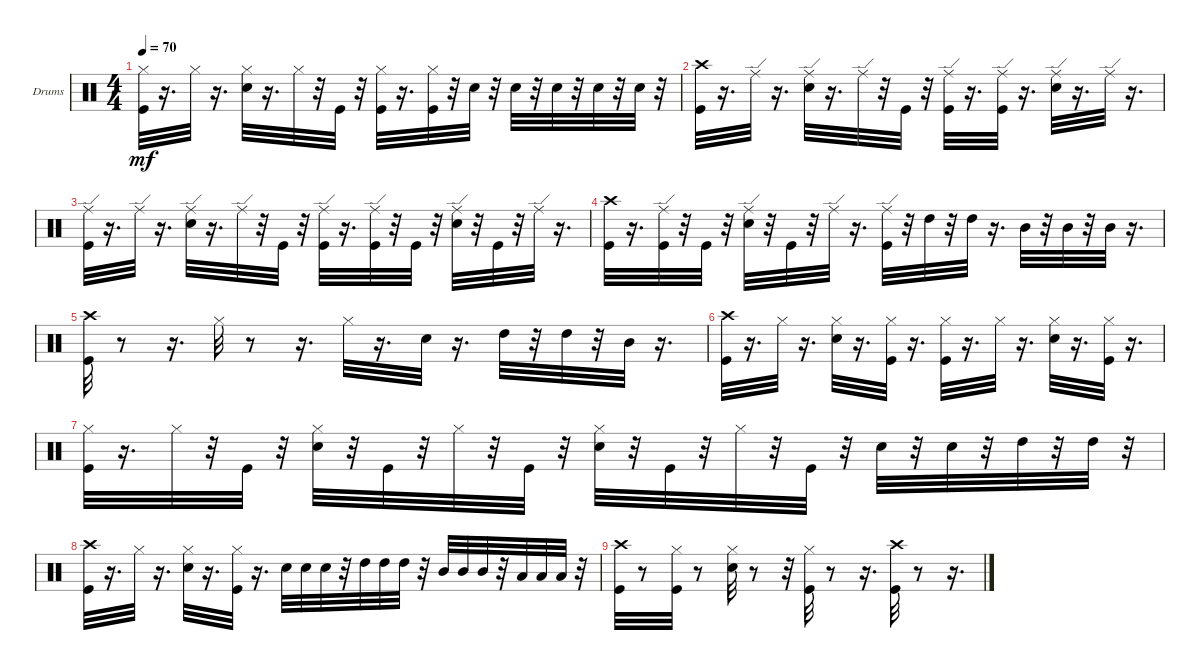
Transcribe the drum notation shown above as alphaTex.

\bracketExtendMode groupsimilarinstruments
\firstSystemTrackNameOrientation horizontal
\otherSystemsTrackNameOrientation horizontal
\track ("" "Drums") {instrument percussion}
\staff {score}
\articulation defaults
\ts (4 4)
\tempo 70
\clef neutral
\ks c
("Hi-Hat (closed)" "Kick (hit)").32{dy mf} r.16{d} "Hi-Hat (closed)".32 r.16{d} ("Hi-Hat (closed)" "Snare (hit) 2").32 r.16{d} "Hi-Hat (closed)".32 r.32 "Kick (hit)".32 r.32 ("Hi-Hat (closed)" "Kick (hit)").32 r.16{d} ("Hi-Hat (closed)" "Kick (hit)").32 r.32 "Snare (hit) 2".32 r.32 "Snare (hit) 2".32 r.32 "Snare (hit) 2".32 r.32 "Snare (hit) 2".32 r.32 "Snare (hit) 2".32 r.32 |
("Crash high (hit)" "Kick (hit)").32 r.16{d} "Ride (edge)".32 r.16{d} ("Snare (hit) 2" "Ride (edge)").32 r.16{d} "Ride (edge)".32 r.32 "Kick (hit)".32 r.32 ("Kick (hit)" "Ride (edge)").32 r.16{d} ("Kick (hit)" "Ride (edge)").32 r.16{d} ("Snare (hit) 2" "Ride (edge)").32 r.16{d} "Ride (edge)".32 r.16{d} |
("Ride (edge)" "Kick (hit)").32 r.16{d} "Ride (edge)".32 r.16{d} ("Snare (hit) 2" "Ride (edge)").32 r.16{d} "Ride (edge)".32 r.32 "Kick (hit)".32 r.32 ("Kick (hit)" "Ride (edge)").32 r.16{d} ("Kick (hit)" "Ride (edge)").32 r.32 "Kick (hit)".32 r.32 ("Snare (hit) 2" "Ride (edge)").32 r.32 "Kick (hit)".32 r.32 "Ride (edge)".32 r.16{d} |
("Crash high (hit)" "Kick (hit)").32 r.16{d} ("Ride (edge)" "Kick (hit)").32 r.32 "Kick (hit)".32 r.32 ("Ride (edge)" "Snare (hit) 2").32 r.32 "Kick (hit)".32 r.32 "Ride (edge)".32 r.16{d} ("Ride (edge)" "Kick (hit)").32 r.32 "High Tom (hit)".32 r.32 "High Tom (hit)".32 r.16{d} "Mid Tom (hit)".32 r.32 "Mid Tom (hit)".32 r.32 "Mid Tom (hit)".32 r.16{d} |
("Crash high (hit)" "Kick (hit)").32 r.8 r.16{d} "Hi-Hat (closed)".32 r.8 r.16{d} "Hi-Hat (closed)".32 r.16{d} "Snare (hit) 2".32 r.16{d} "High Tom (hit)".32 r.32 "High Tom (hit)".32 r.32 "Mid Tom (hit)".32 r.16{d} |
("Crash high (hit)" "Kick (hit)").32 r.16{d} "Hi-Hat (closed)".32 r.16{d} ("Snare (hit) 2" "Hi-Hat (closed)").32 r.16{d} ("Kick (hit)" "Hi-Hat (closed)").32 r.16{d} ("Kick (hit)" "Hi-Hat (closed)").32 r.16{d} "Hi-Hat (closed)".32 r.16{d} ("Snare (hit) 2" "Hi-Hat (closed)").32 r.16{d} ("Kick (hit)" "Hi-Hat (closed)").32 r.16{d} |
("Hi-Hat (closed)" "Kick (hit)").32 r.16{d} "Hi-Hat (closed)".32 r.32 "Kick (hit)".32 r.32 ("Snare (hit) 2" "Hi-Hat (closed)").32 r.32 "Kick (hit)".32 r.32 "Hi-Hat (closed)".32 r.32 "Kick (hit)".32 r.32 ("Hi-Hat (closed)" "Snare (hit) 2").32 r.32 "Kick (hit)".32 r.32 "Hi-Hat (closed)".32 r.32 "Kick (hit)".32 r.32 "Snare (hit) 2".32 r.32 "Snare (hit) 2".32 r.32 "High Tom (hit)".32 r.32 "High Tom (hit)".32 r.32 |
("Crash high (hit)" "Kick (hit)").32 r.16{d} "Hi-Hat (closed)".32 r.16{d} ("Snare (hit) 2" "Hi-Hat (closed)").32 r.16{d} ("Kick (hit)" "Hi-Hat (closed)").32 r.16{d} "Snare (hit) 2".32 "Snare (hit) 2".32 "Snare (hit) 2".32 r.32 "High Tom (hit)".32 "High Tom (hit)".32 "High Tom (hit)".32 r.32 "Mid Tom (hit)".32 "Mid Tom (hit)".32 "Mid Tom (hit)".32 r.32 "Low Tom (hit)".32 "Low Tom (hit)".32 "Low Tom (hit)".32 r.32 |
("Crash high (hit)" "Kick (hit)").32 r.8 ("Kick (hit)" "Hi-Hat (closed)").32 r.8 ("Snare (hit) 2" "Hi-Hat (closed)").32 r.8 r.32 ("Kick (hit)" "Hi-Hat (closed)").32 r.8 r.16{d} ("Crash high (hit)" "Kick (hit)").32 r.8 r.16{d}
